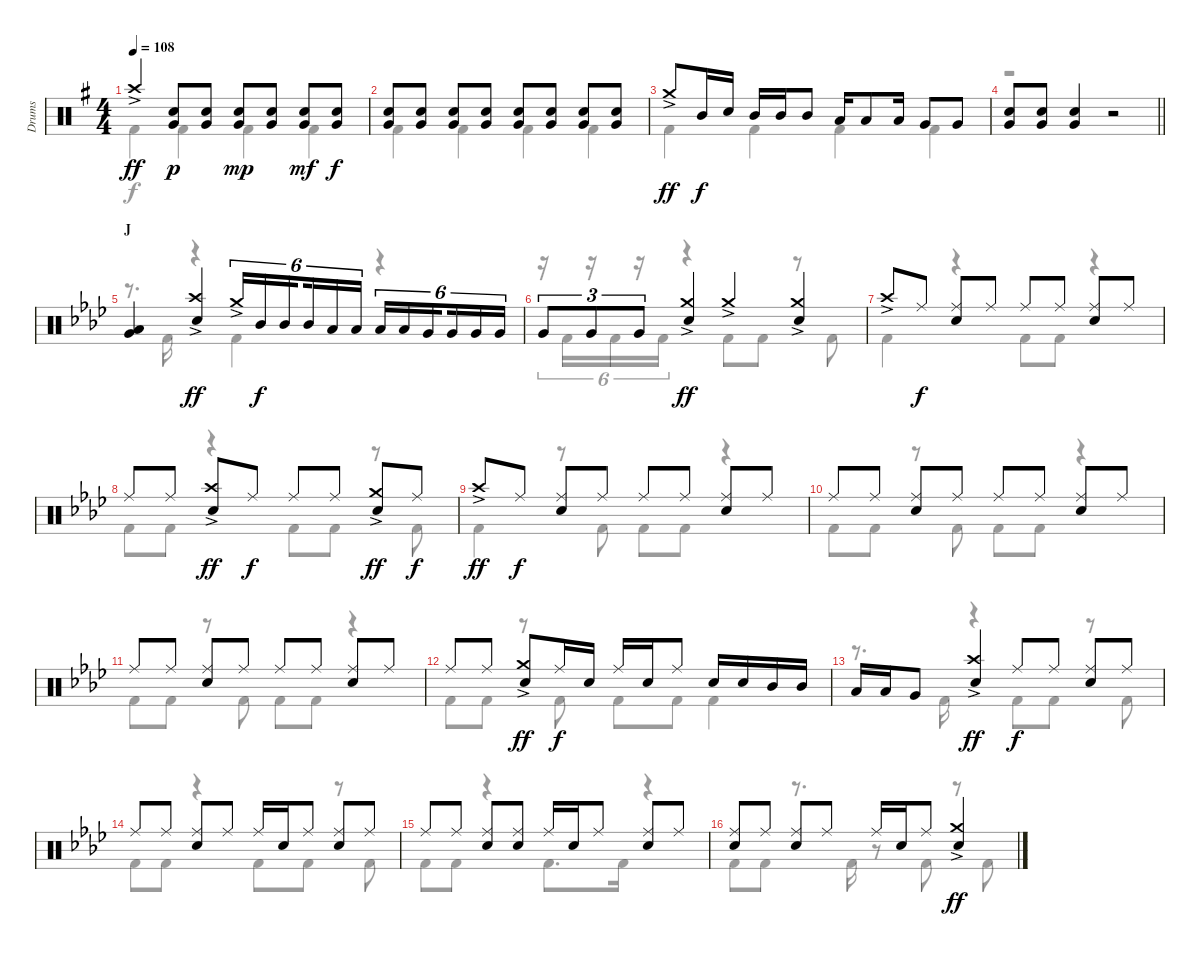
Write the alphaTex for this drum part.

\track ("Drums" "Drums") {instrument percussion}
\staff {score}
\articulation defaults
\voice
\ts (4 4)
\tempo 108
\clef neutral
\ks g "Crash high (hit)"{ac}.4{dy ff}
("Very Low Tom (hit)" "Snare (hit) 2").8{dy p} ("Very Low Tom (hit)" "Snare (hit) 2").8 ("Very Low Tom (hit)" "Snare (hit) 2").8{dy mp} ("Very Low Tom (hit)" "Snare (hit) 2").8 ("Very Low Tom (hit)" "Snare (hit) 2").8{dy mf} ("Very Low Tom (hit)" "Snare (hit) 2").8{dy f} |
("Very Low Tom (hit)" "Snare (hit) 2").8 ("Very Low Tom (hit)" "Snare (hit) 2").8 ("Very Low Tom (hit)" "Snare (hit) 2").8 ("Very Low Tom (hit)" "Snare (hit) 2").8 ("Very Low Tom (hit)" "Snare (hit) 2").8 ("Very Low Tom (hit)" "Snare (hit) 2").8 ("Very Low Tom (hit)" "Snare (hit) 2").8 ("Very Low Tom (hit)" "Snare (hit) 2").8 |
"Crash medium (hit)"{ac}.8{dy ff} "Mid Tom (hit)".16{dy f} "Snare (hit) 2".16 "Mid Tom (hit)".16 "Mid Tom (hit)".16 "Mid Tom (hit)".8 "Low Tom (hit)".16 "Low Tom (hit)".8 "Low Tom (hit)".16 "Very Low Tom (hit)".8 "Very Low Tom (hit)".8 |
\barLineRight lightlight
("Very Low Tom (hit)" "Snare (hit) 2").8 ("Very Low Tom (hit)" "Snare (hit) 2").8 ("Very Low Tom (hit)" "Snare (hit) 2").4 r.2 |
\section ("" "J")
\ks ab
("Low Tom (hit)" "Very Low Tom (hit)").4 ("Crash high (hit)"{ac} "Snare (hit) 2").4{dy ff} "Crash medium (hit)"{ac}.16{tu (6 4)} "Mid Tom (hit)".16{tu (6 4) dy f} "Mid Tom (hit)".16{tu (6 4) beam splitsecondary} "Mid Tom (hit)".16{tu (6 4)} "Low Tom (hit)".16{tu (6 4)} "Low Tom (hit)".16{tu (6 4)} "Low Tom (hit)".16{tu (6 4)} "Low Tom (hit)".16{tu (6 4)} "Very Low Tom (hit)".16{tu (6 4) beam splitsecondary} "Very Low Tom (hit)".16{tu (6 4)} "Very Low Tom (hit)".16{tu (6 4)} "Very Low Tom (hit)".16{tu (6 4)} |
"Very Low Tom (hit)".8{tu (3 2)} "Very Low Tom (hit)".8{tu (3 2)} "Very Low Tom (hit)".8{tu (3 2)} ("Crash medium (hit)"{ac} "Snare (hit) 2").4{dy ff} "Crash medium (hit)"{ac}.4 ("Crash medium (hit)"{ac} "Snare (hit) 2").4 |
"Crash high (hit)"{ac}.8 "Ride (middle)".8{dy f} ("Ride (middle)" "Snare (hit) 2").8 "Ride (middle)".8 "Ride (middle)".8 "Ride (middle)".8 ("Ride (middle)" "Snare (hit) 2").8 "Ride (middle)".8 |
"Ride (middle)".8 "Ride (middle)".8 ("Crash high (hit)"{ac} "Snare (hit) 2").8{dy ff} "Ride (middle)".8{dy f} "Ride (middle)".8 "Ride (middle)".8 ("Crash medium (hit)"{ac} "Snare (hit) 2").8{dy ff} "Ride (middle)".8{dy f} |
"Crash high (hit)"{ac}.8{dy ff} "Ride (middle)".8{dy f} ("Ride (middle)" "Snare (hit) 2").8 "Ride (middle)".8 "Ride (middle)".8 "Ride (middle)".8 ("Ride (middle)" "Snare (hit) 2").8 "Ride (middle)".8 |
"Ride (middle)".8 "Ride (middle)".8 ("Ride (middle)" "Snare (hit) 2").8 "Ride (middle)".8 "Ride (middle)".8 "Ride (middle)".8 ("Ride (middle)" "Snare (hit) 2").8 "Ride (middle)".8 |
"Ride (middle)".8 "Ride (middle)".8 ("Ride (middle)" "Snare (hit) 2").8 "Ride (middle)".8 "Ride (middle)".8 "Ride (middle)".8 ("Ride (middle)" "Snare (hit) 2").8 "Ride (middle)".8 |
"Ride (middle)".8 "Ride (middle)".8 ("Crash medium (hit)"{ac} "Snare (hit) 2").8{dy ff} "Ride (middle)".16{dy f} "Snare (hit) 2".16 "Ride (middle)".16 "Snare (hit) 2".16 "Ride (middle)".8 "Snare (hit) 2".16 "Snare (hit) 2".16 "Mid Tom (hit)".16 "Mid Tom (hit)".16 |
"Low Tom (hit)".16 "Low Tom (hit)".16 "Very Low Tom (hit)".8 ("Crash high (hit)"{ac} "Snare (hit) 2").4{dy ff} "Ride (middle)".8{dy f} "Ride (middle)".8 ("Ride (middle)" "Snare (hit) 2").8 "Ride (middle)".8 |
"Ride (middle)".8 "Ride (middle)".8 ("Ride (middle)" "Snare (hit) 2").8 "Ride (middle)".8 "Ride (middle)".16 "Snare (hit) 2".16 "Ride (middle)".8 ("Ride (middle)" "Snare (hit) 2").8 "Ride (middle)".8 |
"Ride (middle)".8 "Ride (middle)".8 ("Ride (middle)" "Snare (hit) 2").8 ("Ride (middle)" "Snare (hit) 2").8 "Ride (middle)".16 "Snare (hit) 2".16 "Ride (middle)".8 ("Ride (middle)" "Snare (hit) 2").8 "Ride (middle)".8 |
("Ride (middle)" "Snare (hit) 2").8 "Ride (middle)".8 ("Ride (middle)" "Snare (hit) 2").8 "Ride (middle)".8 "Ride (middle)".16 "Snare (hit) 2".16 "Ride (middle)".8 ("Crash medium (hit)"{ac} "Snare (hit) 2").4{dy ff}
\voice
\clef neutral
\ottava regular
\simile none
\ks g "Kick (hit) 2".4{dy f} "Kick (hit) 2".4 "Kick (hit) 2".4 "Kick (hit) 2".4
|
"Kick (hit) 2".4 "Kick (hit) 2".4 "Kick (hit) 2".4 "Kick (hit) 2".4 |
"Kick (hit) 2".4 "Kick (hit) 2".4 "Kick (hit) 2".4 "Kick (hit) 2".4 |
\barLineRight lightlight
r.1 |
\ks ab
r.8{d} "Kick (hit) 2".16 r.4 "Kick (hit) 2".4 r.4 |
r.16{tu (6 4)} "Kick (hit) 2".16{tu (6 4)} r.16{tu (6 4)} "Kick (hit) 2".16{tu (6 4)} r.16{tu (6 4)} "Kick (hit) 2".16{tu (6 4)} r.4 "Kick (hit) 2".8 "Kick (hit) 2".8 r.8 "Kick (hit) 2".8 |
"Kick (hit) 2".4 r.4 "Kick (hit) 2".8 "Kick (hit) 2".8 r.4 |
"Kick (hit) 2".8 "Kick (hit) 2".8 r.4 "Kick (hit) 2".8 "Kick (hit) 2".8 r.8 "Kick (hit) 2".8 |
"Kick (hit) 2".4 r.8 "Kick (hit) 2".8 "Kick (hit) 2".8 "Kick (hit) 2".8 r.4 |
"Kick (hit) 2".8 "Kick (hit) 2".8 r.8 "Kick (hit) 2".8 "Kick (hit) 2".8 "Kick (hit) 2".8 r.4 |
"Kick (hit) 2".8 "Kick (hit) 2".8 r.8 "Kick (hit) 2".8 "Kick (hit) 2".8 "Kick (hit) 2".8 r.4 |
"Kick (hit) 2".8 "Kick (hit) 2".8 r.8 "Kick (hit) 2".8 "Kick (hit) 2".8 "Kick (hit) 2".8 "Kick (hit) 2".4 |
r.8{d} "Kick (hit) 2".16 r.4 "Kick (hit) 2".8 "Kick (hit) 2".8 r.8 "Kick (hit) 2".8 |
"Kick (hit) 2".8 "Kick (hit) 2".8 r.4 "Kick (hit) 2".8 "Kick (hit) 2".8 r.8 "Kick (hit) 2".8 |
"Kick (hit) 2".8 "Kick (hit) 2".8 r.4 "Kick (hit) 2".8{d} "Kick (hit) 2".16 r.4 |
"Kick (hit) 2".8 "Kick (hit) 2".8 r.8{d} "Kick (hit) 2".16 r.8 "Kick (hit) 2".8 r.8 "Kick (hit) 2".8
